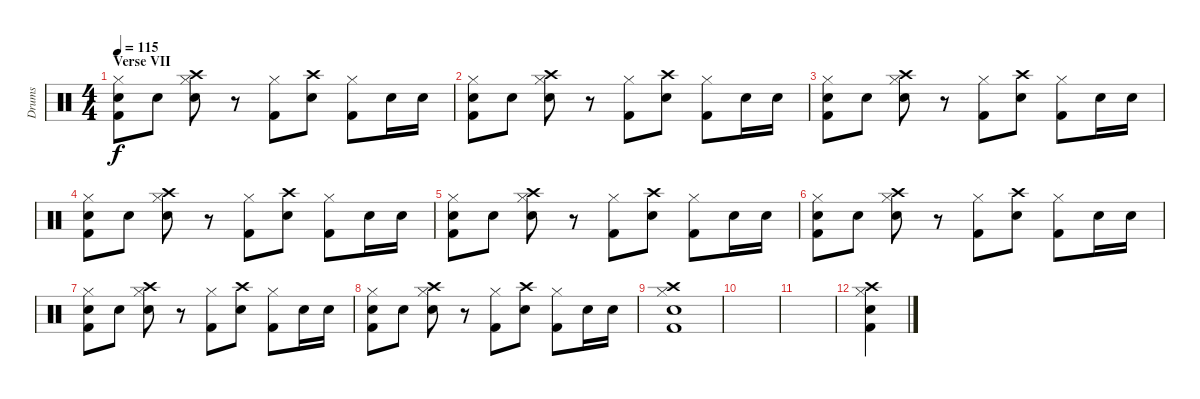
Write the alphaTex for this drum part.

\track ("Drums" "Drums") {instrument percussion}
\staff {score}
\articulation defaults
\ts (4 4)
\section ("" "Verse VII")
\tempo 115
\clef neutral
\ks c
("Hi-Hat (closed)" "Kick (hit) 2" "Snare (hit) 2").8{dy f} "Snare (hit) 2".8 ("Hi-Hat (closed)" "Crash high (hit)" "Snare (hit) 2").8 r.8 ("Hi-Hat (closed)" "Kick (hit) 2").8 ("Crash high (hit)" "Snare (hit) 2").8 ("Hi-Hat (closed)" "Kick (hit) 2").8 "Snare (hit) 2".16 "Snare (hit) 2".16 |
("Hi-Hat (closed)" "Kick (hit) 2" "Snare (hit) 2").8 "Snare (hit) 2".8 ("Hi-Hat (closed)" "Crash high (hit)" "Snare (hit) 2").8 r.8 ("Hi-Hat (closed)" "Kick (hit) 2").8 ("Crash high (hit)" "Snare (hit) 2").8 ("Hi-Hat (closed)" "Kick (hit) 2").8 "Snare (hit) 2".16 "Snare (hit) 2".16 |
("Hi-Hat (closed)" "Kick (hit) 2" "Snare (hit) 2").8 "Snare (hit) 2".8 ("Hi-Hat (closed)" "Crash high (hit)" "Snare (hit) 2").8 r.8 ("Hi-Hat (closed)" "Kick (hit) 2").8 ("Crash high (hit)" "Snare (hit) 2").8 ("Hi-Hat (closed)" "Kick (hit) 2").8 "Snare (hit) 2".16 "Snare (hit) 2".16 |
("Hi-Hat (closed)" "Kick (hit) 2" "Snare (hit) 2").8 "Snare (hit) 2".8 ("Hi-Hat (closed)" "Crash high (hit)" "Snare (hit) 2").8 r.8 ("Hi-Hat (closed)" "Kick (hit) 2").8 ("Crash high (hit)" "Snare (hit) 2").8 ("Hi-Hat (closed)" "Kick (hit) 2").8 "Snare (hit) 2".16 "Snare (hit) 2".16 |
("Hi-Hat (closed)" "Kick (hit) 2" "Snare (hit) 2").8 "Snare (hit) 2".8 ("Hi-Hat (closed)" "Crash high (hit)" "Snare (hit) 2").8 r.8 ("Hi-Hat (closed)" "Kick (hit) 2").8 ("Crash high (hit)" "Snare (hit) 2").8 ("Hi-Hat (closed)" "Kick (hit) 2").8 "Snare (hit) 2".16 "Snare (hit) 2".16 |
("Hi-Hat (closed)" "Kick (hit) 2" "Snare (hit) 2").8 "Snare (hit) 2".8 ("Hi-Hat (closed)" "Crash high (hit)" "Snare (hit) 2").8 r.8 ("Hi-Hat (closed)" "Kick (hit) 2").8 ("Crash high (hit)" "Snare (hit) 2").8 ("Hi-Hat (closed)" "Kick (hit) 2").8 "Snare (hit) 2".16 "Snare (hit) 2".16 |
("Hi-Hat (closed)" "Kick (hit) 2" "Snare (hit) 2").8 "Snare (hit) 2".8 ("Hi-Hat (closed)" "Crash high (hit)" "Snare (hit) 2").8 r.8 ("Hi-Hat (closed)" "Kick (hit) 2").8 ("Crash high (hit)" "Snare (hit) 2").8 ("Hi-Hat (closed)" "Kick (hit) 2").8 "Snare (hit) 2".16 "Snare (hit) 2".16 |
("Hi-Hat (closed)" "Kick (hit) 2" "Snare (hit) 2").8 "Snare (hit) 2".8 ("Hi-Hat (closed)" "Crash high (hit)" "Snare (hit) 2").8 r.8 ("Hi-Hat (closed)" "Kick (hit) 2").8 ("Crash high (hit)" "Snare (hit) 2").8 ("Hi-Hat (closed)" "Kick (hit) 2").8 "Snare (hit) 2".16 "Snare (hit) 2".16 |
("Hi-Hat (closed)" "Kick (hit) 2" "Snare (hit) 2" "Crash high (hit)").1 |
|
|
("Hi-Hat (closed)" "Kick (hit) 2" "Snare (hit) 2" "Crash high (hit)").4
